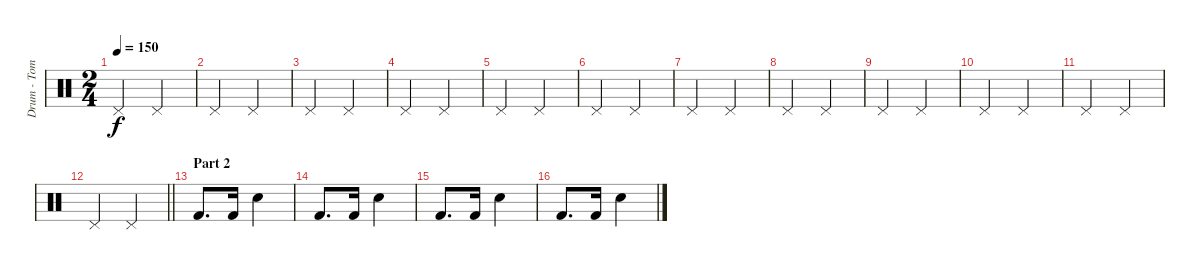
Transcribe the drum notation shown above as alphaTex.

\track ("Drum - Tom" "Drum - Tom") {instrument percussion}
\staff {score}
\articulation defaults
\ts (2 4)
\tempo 150
\clef neutral
\ks c "Pedal Hi-Hat (hit)".4{dy f} "Pedal Hi-Hat (hit)".4
|
"Pedal Hi-Hat (hit)".4 "Pedal Hi-Hat (hit)".4 |
"Pedal Hi-Hat (hit)".4 "Pedal Hi-Hat (hit)".4 |
"Pedal Hi-Hat (hit)".4 "Pedal Hi-Hat (hit)".4 |
"Pedal Hi-Hat (hit)".4 "Pedal Hi-Hat (hit)".4 |
"Pedal Hi-Hat (hit)".4 "Pedal Hi-Hat (hit)".4 |
"Pedal Hi-Hat (hit)".4 "Pedal Hi-Hat (hit)".4 |
"Pedal Hi-Hat (hit)".4 "Pedal Hi-Hat (hit)".4 |
"Pedal Hi-Hat (hit)".4 "Pedal Hi-Hat (hit)".4 |
"Pedal Hi-Hat (hit)".4 "Pedal Hi-Hat (hit)".4 |
"Pedal Hi-Hat (hit)".4 "Pedal Hi-Hat (hit)".4 |
\barLineRight lightlight "Pedal Hi-Hat (hit)".4 "Pedal Hi-Hat (hit)".4
|
\section ("" "Part 2")
"Kick (hit) 2".8{d} "Kick (hit) 2".16 "Electric Snare (hit)".4 |
"Kick (hit) 2".8{d} "Kick (hit) 2".16 "Electric Snare (hit)".4 |
"Kick (hit) 2".8{d} "Kick (hit) 2".16 "Electric Snare (hit)".4 |
"Kick (hit) 2".8{d} "Kick (hit) 2".16 "Electric Snare (hit)".4
